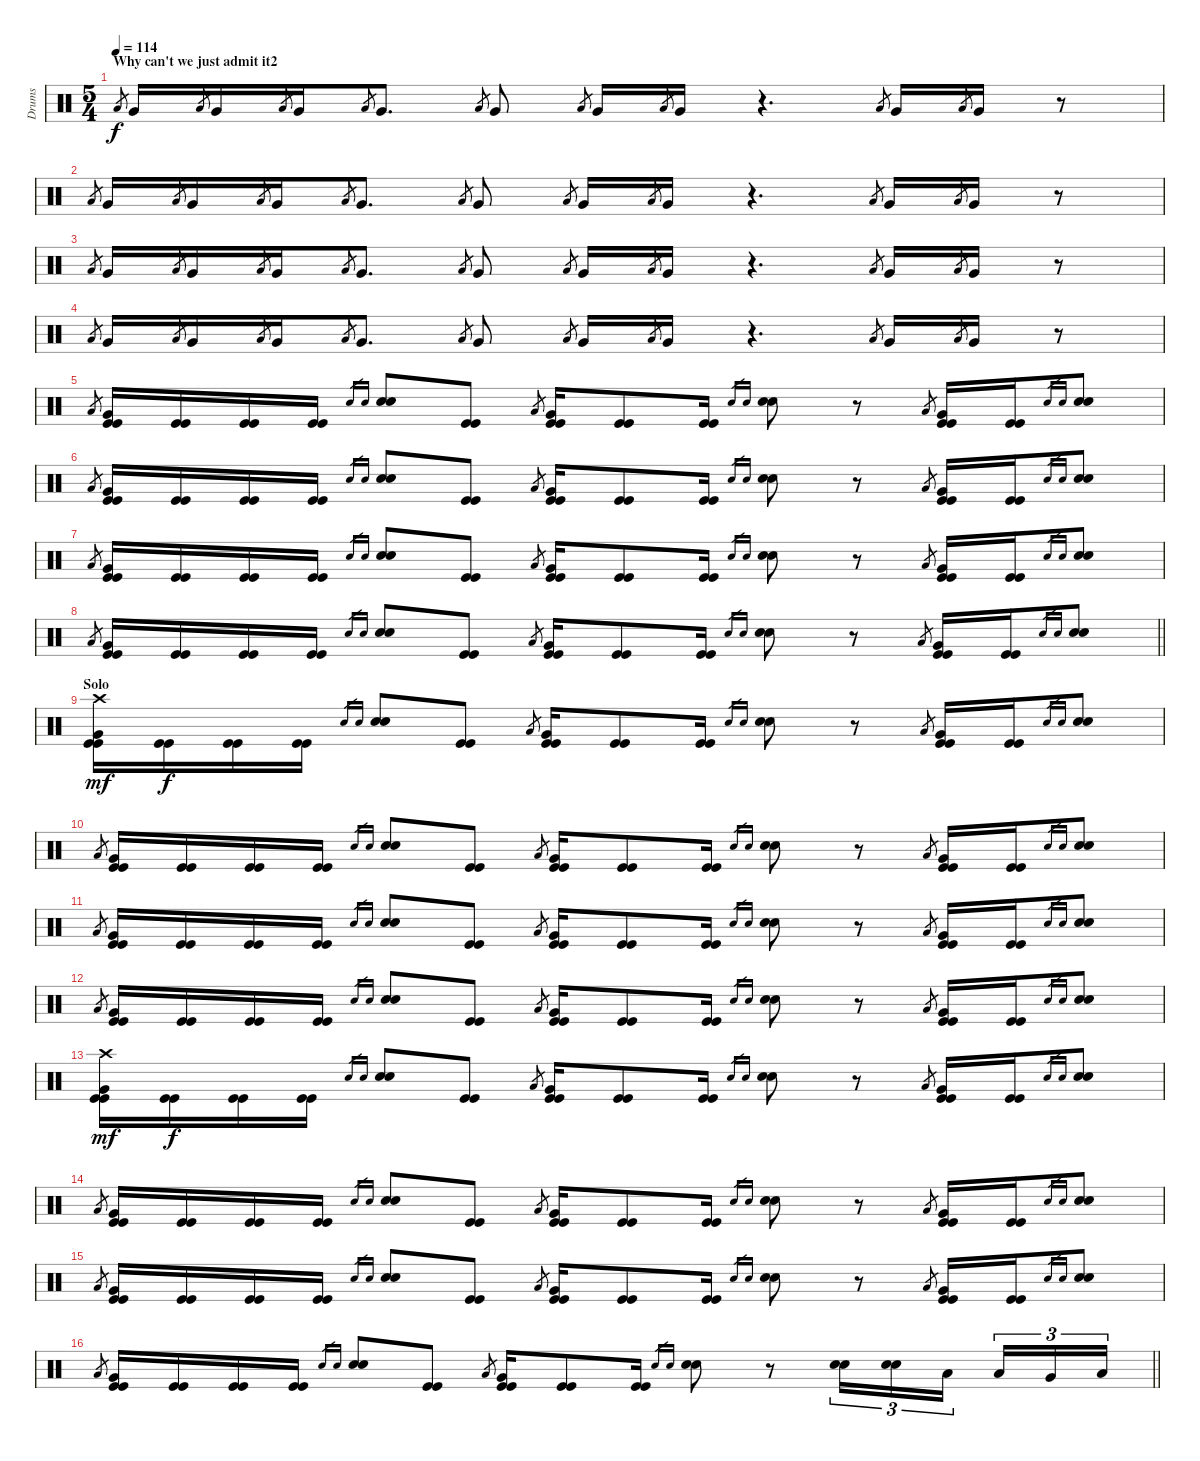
\track ("Drums" "Drums") {instrument percussion}
\staff {score}
\articulation defaults
\ts (5 4)
\section ("" "Why can't we just admit it2")
\tempo 114
\clef neutral
\ks c "Low Floor Tom (hit)".8{gr dy f} "Very Low Tom (hit)".16 "Low Floor Tom (hit)".8{gr} "Very Low Tom (hit)".16 "Low Floor Tom (hit)".8{gr} "Very Low Tom (hit)".16 "Low Floor Tom (hit)".8{gr} "Very Low Tom (hit)".8{d} "Low Floor Tom (hit)".8{gr} "Very Low Tom (hit)".8 "Low Floor Tom (hit)".8{gr} "Very Low Tom (hit)".16 "Low Floor Tom (hit)".8{gr} "Very Low Tom (hit)".16
r.4{d} "Low Floor Tom (hit)".8{gr} "Very Low Tom (hit)".16 "Low Floor Tom (hit)".8{gr} "Very Low Tom (hit)".16 r.8 |
"Low Floor Tom (hit)".8{gr} "Very Low Tom (hit)".16 "Low Floor Tom (hit)".8{gr} "Very Low Tom (hit)".16 "Low Floor Tom (hit)".8{gr} "Very Low Tom (hit)".16 "Low Floor Tom (hit)".8{gr} "Very Low Tom (hit)".8{d} "Low Floor Tom (hit)".8{gr} "Very Low Tom (hit)".8 "Low Floor Tom (hit)".8{gr} "Very Low Tom (hit)".16 "Low Floor Tom (hit)".8{gr} "Very Low Tom (hit)".16 r.4{d} "Low Floor Tom (hit)".8{gr} "Very Low Tom (hit)".16 "Low Floor Tom (hit)".8{gr} "Very Low Tom (hit)".16 r.8 |
"Low Floor Tom (hit)".8{gr} "Very Low Tom (hit)".16 "Low Floor Tom (hit)".8{gr} "Very Low Tom (hit)".16 "Low Floor Tom (hit)".8{gr} "Very Low Tom (hit)".16 "Low Floor Tom (hit)".8{gr} "Very Low Tom (hit)".8{d} "Low Floor Tom (hit)".8{gr} "Very Low Tom (hit)".8 "Low Floor Tom (hit)".8{gr} "Very Low Tom (hit)".16 "Low Floor Tom (hit)".8{gr} "Very Low Tom (hit)".16 r.4{d} "Low Floor Tom (hit)".8{gr} "Very Low Tom (hit)".16 "Low Floor Tom (hit)".8{gr} "Very Low Tom (hit)".16 r.8 |
"Low Floor Tom (hit)".8{gr} "Very Low Tom (hit)".16 "Low Floor Tom (hit)".8{gr} "Very Low Tom (hit)".16 "Low Floor Tom (hit)".8{gr} "Very Low Tom (hit)".16 "Low Floor Tom (hit)".8{gr} "Very Low Tom (hit)".8{d} "Low Floor Tom (hit)".8{gr} "Very Low Tom (hit)".8 "Low Floor Tom (hit)".8{gr} "Very Low Tom (hit)".16 "Low Floor Tom (hit)".8{gr} "Very Low Tom (hit)".16 r.4{d} "Low Floor Tom (hit)".8{gr} "Very Low Tom (hit)".16 "Low Floor Tom (hit)".8{gr} "Very Low Tom (hit)".16 r.8 |
"Low Floor Tom (hit)".8{gr} ("Kick (hit)" "Kick (hit)" "Very Low Tom (hit)").16 ("Kick (hit)" "Kick (hit)").16 ("Kick (hit)" "Kick (hit)").16 ("Kick (hit)" "Kick (hit)").16 "Electric Snare (hit)".16{gr} "Snare (hit) 2".16{gr} ("Electric Snare (hit)" "Snare (hit) 2").8 ("Kick (hit)" "Kick (hit)").8 "Low Floor Tom (hit)".8{gr} ("Kick (hit)" "Kick (hit)" "Very Low Tom (hit)").16 ("Kick (hit)" "Kick (hit)").8 ("Kick (hit)" "Kick (hit)").16 "Electric Snare (hit)".16{gr} "Snare (hit) 2".16{gr} ("Electric Snare (hit)" "Snare (hit) 2").8 r.8 "Low Floor Tom (hit)".8{gr} ("Kick (hit)" "Kick (hit)" "Very Low Tom (hit)").16 ("Kick (hit)" "Kick (hit)").16 "Electric Snare (hit)".16{gr} "Snare (hit) 2".16{gr} ("Electric Snare (hit)" "Snare (hit) 2").8 |
"Low Floor Tom (hit)".8{gr} ("Kick (hit)" "Kick (hit)" "Very Low Tom (hit)").16 ("Kick (hit)" "Kick (hit)").16 ("Kick (hit)" "Kick (hit)").16 ("Kick (hit)" "Kick (hit)").16 "Electric Snare (hit)".16{gr} "Snare (hit) 2".16{gr} ("Electric Snare (hit)" "Snare (hit) 2").8 ("Kick (hit)" "Kick (hit)").8 "Low Floor Tom (hit)".8{gr} ("Kick (hit)" "Kick (hit)" "Very Low Tom (hit)").16 ("Kick (hit)" "Kick (hit)").8 ("Kick (hit)" "Kick (hit)").16 "Electric Snare (hit)".16{gr} "Snare (hit) 2".16{gr} ("Electric Snare (hit)" "Snare (hit) 2").8 r.8 "Low Floor Tom (hit)".8{gr} ("Kick (hit)" "Kick (hit)" "Very Low Tom (hit)").16 ("Kick (hit)" "Kick (hit)").16 "Electric Snare (hit)".16{gr} "Snare (hit) 2".16{gr} ("Electric Snare (hit)" "Snare (hit) 2").8 |
"Low Floor Tom (hit)".8{gr} ("Kick (hit)" "Kick (hit)" "Very Low Tom (hit)").16 ("Kick (hit)" "Kick (hit)").16 ("Kick (hit)" "Kick (hit)").16 ("Kick (hit)" "Kick (hit)").16 "Electric Snare (hit)".16{gr} "Snare (hit) 2".16{gr} ("Electric Snare (hit)" "Snare (hit) 2").8 ("Kick (hit)" "Kick (hit)").8 "Low Floor Tom (hit)".8{gr} ("Kick (hit)" "Kick (hit)" "Very Low Tom (hit)").16 ("Kick (hit)" "Kick (hit)").8 ("Kick (hit)" "Kick (hit)").16 "Electric Snare (hit)".16{gr} "Snare (hit) 2".16{gr} ("Electric Snare (hit)" "Snare (hit) 2").8 r.8 "Low Floor Tom (hit)".8{gr} ("Kick (hit)" "Kick (hit)" "Very Low Tom (hit)").16 ("Kick (hit)" "Kick (hit)").16 "Electric Snare (hit)".16{gr} "Snare (hit) 2".16{gr} ("Electric Snare (hit)" "Snare (hit) 2").8 |
\barLineRight lightlight "Low Floor Tom (hit)".8{gr}
("Kick (hit)" "Kick (hit)" "Very Low Tom (hit)").16 ("Kick (hit)" "Kick (hit)").16 ("Kick (hit)" "Kick (hit)").16 ("Kick (hit)" "Kick (hit)").16 "Electric Snare (hit)".16{gr} "Snare (hit) 2".16{gr} ("Electric Snare (hit)" "Snare (hit) 2").8 ("Kick (hit)" "Kick (hit)").8 "Low Floor Tom (hit)".8{gr} ("Kick (hit)" "Kick (hit)" "Very Low Tom (hit)").16 ("Kick (hit)" "Kick (hit)").8 ("Kick (hit)" "Kick (hit)").16 "Electric Snare (hit)".16{gr} "Snare (hit) 2".16{gr} ("Electric Snare (hit)" "Snare (hit) 2").8 r.8 "Low Floor Tom (hit)".8{gr} ("Kick (hit)" "Kick (hit)" "Very Low Tom (hit)").16 ("Kick (hit)" "Kick (hit)").16 "Electric Snare (hit)".16{gr} "Snare (hit) 2".16{gr} ("Electric Snare (hit)" "Snare (hit) 2").8 |
\section ("" "Solo")
("Kick (hit)" "Kick (hit)" "Very Low Tom (hit)" "Crash high (hit)").16{dy mf} ("Kick (hit)" "Kick (hit)").16{dy f} ("Kick (hit)" "Kick (hit)").16 ("Kick (hit)" "Kick (hit)").16 "Electric Snare (hit)".16{gr} "Snare (hit) 2".16{gr} ("Electric Snare (hit)" "Snare (hit) 2").8 ("Kick (hit)" "Kick (hit)").8 "Low Floor Tom (hit)".8{gr} ("Kick (hit)" "Kick (hit)" "Very Low Tom (hit)").16 ("Kick (hit)" "Kick (hit)").8 ("Kick (hit)" "Kick (hit)").16 "Electric Snare (hit)".16{gr} "Snare (hit) 2".16{gr} ("Electric Snare (hit)" "Snare (hit) 2").8 r.8 "Low Floor Tom (hit)".8{gr} ("Kick (hit)" "Kick (hit)" "Very Low Tom (hit)").16 ("Kick (hit)" "Kick (hit)").16 "Electric Snare (hit)".16{gr} "Snare (hit) 2".16{gr} ("Electric Snare (hit)" "Snare (hit) 2").8 |
"Low Floor Tom (hit)".8{gr} ("Kick (hit)" "Kick (hit)" "Very Low Tom (hit)").16 ("Kick (hit)" "Kick (hit)").16 ("Kick (hit)" "Kick (hit)").16 ("Kick (hit)" "Kick (hit)").16 "Electric Snare (hit)".16{gr} "Snare (hit) 2".16{gr} ("Electric Snare (hit)" "Snare (hit) 2").8 ("Kick (hit)" "Kick (hit)").8 "Low Floor Tom (hit)".8{gr} ("Kick (hit)" "Kick (hit)" "Very Low Tom (hit)").16 ("Kick (hit)" "Kick (hit)").8 ("Kick (hit)" "Kick (hit)").16 "Electric Snare (hit)".16{gr} "Snare (hit) 2".16{gr} ("Electric Snare (hit)" "Snare (hit) 2").8 r.8 "Low Floor Tom (hit)".8{gr} ("Kick (hit)" "Kick (hit)" "Very Low Tom (hit)").16 ("Kick (hit)" "Kick (hit)").16 "Electric Snare (hit)".16{gr} "Snare (hit) 2".16{gr} ("Electric Snare (hit)" "Snare (hit) 2").8 |
"Low Floor Tom (hit)".8{gr} ("Kick (hit)" "Kick (hit)" "Very Low Tom (hit)").16 ("Kick (hit)" "Kick (hit)").16 ("Kick (hit)" "Kick (hit)").16 ("Kick (hit)" "Kick (hit)").16 "Electric Snare (hit)".16{gr} "Snare (hit) 2".16{gr} ("Electric Snare (hit)" "Snare (hit) 2").8 ("Kick (hit)" "Kick (hit)").8 "Low Floor Tom (hit)".8{gr} ("Kick (hit)" "Kick (hit)" "Very Low Tom (hit)").16 ("Kick (hit)" "Kick (hit)").8 ("Kick (hit)" "Kick (hit)").16 "Electric Snare (hit)".16{gr} "Snare (hit) 2".16{gr} ("Electric Snare (hit)" "Snare (hit) 2").8 r.8 "Low Floor Tom (hit)".8{gr} ("Kick (hit)" "Kick (hit)" "Very Low Tom (hit)").16 ("Kick (hit)" "Kick (hit)").16 "Electric Snare (hit)".16{gr} "Snare (hit) 2".16{gr} ("Electric Snare (hit)" "Snare (hit) 2").8 |
"Low Floor Tom (hit)".8{gr} ("Kick (hit)" "Kick (hit)" "Very Low Tom (hit)").16 ("Kick (hit)" "Kick (hit)").16 ("Kick (hit)" "Kick (hit)").16 ("Kick (hit)" "Kick (hit)").16 "Electric Snare (hit)".16{gr} "Snare (hit) 2".16{gr} ("Electric Snare (hit)" "Snare (hit) 2").8 ("Kick (hit)" "Kick (hit)").8 "Low Floor Tom (hit)".8{gr} ("Kick (hit)" "Kick (hit)" "Very Low Tom (hit)").16 ("Kick (hit)" "Kick (hit)").8 ("Kick (hit)" "Kick (hit)").16 "Electric Snare (hit)".16{gr} "Snare (hit) 2".16{gr} ("Electric Snare (hit)" "Snare (hit) 2").8 r.8 "Low Floor Tom (hit)".8{gr} ("Kick (hit)" "Kick (hit)" "Very Low Tom (hit)").16 ("Kick (hit)" "Kick (hit)").16 "Electric Snare (hit)".16{gr} "Snare (hit) 2".16{gr} ("Electric Snare (hit)" "Snare (hit) 2").8 |
("Kick (hit)" "Kick (hit)" "Very Low Tom (hit)" "Crash high (hit)").16{dy mf} ("Kick (hit)" "Kick (hit)").16{dy f} ("Kick (hit)" "Kick (hit)").16 ("Kick (hit)" "Kick (hit)").16 "Electric Snare (hit)".16{gr} "Snare (hit) 2".16{gr} ("Electric Snare (hit)" "Snare (hit) 2").8 ("Kick (hit)" "Kick (hit)").8 "Low Floor Tom (hit)".8{gr} ("Kick (hit)" "Kick (hit)" "Very Low Tom (hit)").16 ("Kick (hit)" "Kick (hit)").8 ("Kick (hit)" "Kick (hit)").16 "Electric Snare (hit)".16{gr} "Snare (hit) 2".16{gr} ("Electric Snare (hit)" "Snare (hit) 2").8 r.8 "Low Floor Tom (hit)".8{gr} ("Kick (hit)" "Kick (hit)" "Very Low Tom (hit)").16 ("Kick (hit)" "Kick (hit)").16 "Electric Snare (hit)".16{gr} "Snare (hit) 2".16{gr} ("Electric Snare (hit)" "Snare (hit) 2").8 |
"Low Floor Tom (hit)".8{gr} ("Kick (hit)" "Kick (hit)" "Very Low Tom (hit)").16 ("Kick (hit)" "Kick (hit)").16 ("Kick (hit)" "Kick (hit)").16 ("Kick (hit)" "Kick (hit)").16 "Electric Snare (hit)".16{gr} "Snare (hit) 2".16{gr} ("Electric Snare (hit)" "Snare (hit) 2").8 ("Kick (hit)" "Kick (hit)").8 "Low Floor Tom (hit)".8{gr} ("Kick (hit)" "Kick (hit)" "Very Low Tom (hit)").16 ("Kick (hit)" "Kick (hit)").8 ("Kick (hit)" "Kick (hit)").16 "Electric Snare (hit)".16{gr} "Snare (hit) 2".16{gr} ("Electric Snare (hit)" "Snare (hit) 2").8 r.8 "Low Floor Tom (hit)".8{gr} ("Kick (hit)" "Kick (hit)" "Very Low Tom (hit)").16 ("Kick (hit)" "Kick (hit)").16 "Electric Snare (hit)".16{gr} "Snare (hit) 2".16{gr} ("Electric Snare (hit)" "Snare (hit) 2").8 |
"Low Floor Tom (hit)".8{gr} ("Kick (hit)" "Kick (hit)" "Very Low Tom (hit)").16 ("Kick (hit)" "Kick (hit)").16 ("Kick (hit)" "Kick (hit)").16 ("Kick (hit)" "Kick (hit)").16 "Electric Snare (hit)".16{gr} "Snare (hit) 2".16{gr} ("Electric Snare (hit)" "Snare (hit) 2").8 ("Kick (hit)" "Kick (hit)").8 "Low Floor Tom (hit)".8{gr} ("Kick (hit)" "Kick (hit)" "Very Low Tom (hit)").16 ("Kick (hit)" "Kick (hit)").8 ("Kick (hit)" "Kick (hit)").16 "Electric Snare (hit)".16{gr} "Snare (hit) 2".16{gr} ("Electric Snare (hit)" "Snare (hit) 2").8 r.8 "Low Floor Tom (hit)".8{gr} ("Kick (hit)" "Kick (hit)" "Very Low Tom (hit)").16 ("Kick (hit)" "Kick (hit)").16 "Electric Snare (hit)".16{gr} "Snare (hit) 2".16{gr} ("Electric Snare (hit)" "Snare (hit) 2").8 |
\barLineRight lightlight "Low Floor Tom (hit)".8{gr}
("Kick (hit)" "Kick (hit)" "Very Low Tom (hit)").16 ("Kick (hit)" "Kick (hit)").16 ("Kick (hit)" "Kick (hit)").16 ("Kick (hit)" "Kick (hit)").16 "Electric Snare (hit)".16{gr} "Snare (hit) 2".16{gr} ("Electric Snare (hit)" "Snare (hit) 2").8 ("Kick (hit)" "Kick (hit)").8 "Low Floor Tom (hit)".8{gr} ("Kick (hit)" "Kick (hit)" "Very Low Tom (hit)").16 ("Kick (hit)" "Kick (hit)").8 ("Kick (hit)" "Kick (hit)").16 "Electric Snare (hit)".16{gr} "Snare (hit) 2".16{gr} ("Electric Snare (hit)" "Snare (hit) 2").8 r.8 ("Snare (hit) 2" "Electric Snare (hit)").16{tu (3 2)} ("Snare (hit) 2" "Electric Snare (hit)").16{tu (3 2)} "Low Tom (hit)".16{tu (3 2)} "Low Tom (hit)".16{tu (3 2)} "Very Low Tom (hit)".16{tu (3 2)} "Low Floor Tom (hit)".16{tu (3 2)}
